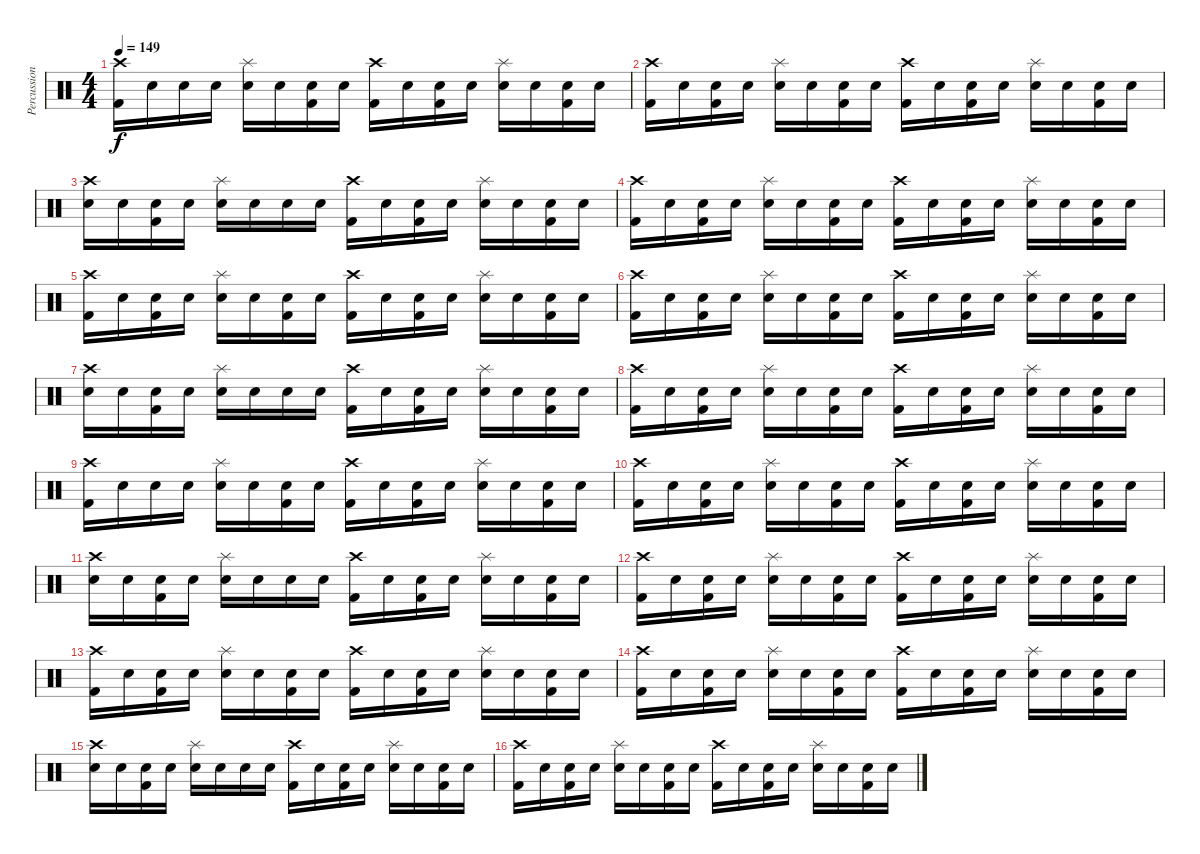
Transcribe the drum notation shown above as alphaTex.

\track ("Percussion" "Percussion") {instrument percussion}
\staff {score}
\articulation defaults
\ts (4 4)
\tempo 149
\clef neutral
\ks c
("Crash high (hit)" "Kick (hit) 2").16{dy f} "Snare (hit)".16 "Snare (hit)".16 "Snare (hit)".16 ("Splash (hit)" "Electric Snare (hit)").16 "Snare (hit)".16 ("Snare (hit)" "Kick (hit) 2").16 "Snare (hit)".16 ("Crash high (hit)" "Kick (hit) 2").16 "Snare (hit)".16 ("Snare (hit)" "Kick (hit) 2").16 "Snare (hit)".16 ("Splash (hit)" "Electric Snare (hit)").16 "Snare (hit)".16 ("Snare (hit)" "Kick (hit) 2").16 "Snare (hit)".16 |
("Crash high (hit)" "Kick (hit) 2").16 "Snare (hit)".16 ("Snare (hit)" "Kick (hit) 2").16 "Snare (hit)".16 ("Splash (hit)" "Electric Snare (hit)").16 "Snare (hit)".16 ("Snare (hit)" "Kick (hit) 2").16 "Snare (hit)".16 ("Crash high (hit)" "Kick (hit) 2").16 "Snare (hit)".16 ("Snare (hit)" "Kick (hit) 2").16 "Snare (hit)".16 ("Splash (hit)" "Electric Snare (hit)").16 "Snare (hit)".16 ("Snare (hit)" "Kick (hit) 2").16 "Snare (hit)".16 |
("Crash high (hit)" "Electric Snare (hit)").16 "Snare (hit)".16 ("Snare (hit)" "Kick (hit) 2").16 "Snare (hit)".16 ("Splash (hit)" "Electric Snare (hit)").16 "Snare (hit)".16 "Snare (hit)".16 "Snare (hit)".16 ("Crash high (hit)" "Kick (hit) 2").16 "Snare (hit)".16 ("Snare (hit)" "Kick (hit) 2").16 "Snare (hit)".16 ("Splash (hit)" "Electric Snare (hit)").16 "Snare (hit)".16 ("Snare (hit)" "Kick (hit) 2").16 "Snare (hit)".16 |
("Crash high (hit)" "Kick (hit) 2").16 "Snare (hit)".16 ("Snare (hit)" "Kick (hit) 2").16 "Snare (hit)".16 ("Splash (hit)" "Electric Snare (hit)").16 "Snare (hit)".16 ("Snare (hit)" "Kick (hit) 2").16 "Snare (hit)".16 ("Crash high (hit)" "Kick (hit) 2").16 "Snare (hit)".16 ("Snare (hit)" "Kick (hit) 2").16 "Snare (hit)".16 ("Splash (hit)" "Electric Snare (hit)").16 "Snare (hit)".16 ("Snare (hit)" "Kick (hit) 2").16 "Snare (hit)".16 |
("Crash high (hit)" "Kick (hit) 2").16 "Snare (hit)".16 ("Snare (hit)" "Kick (hit) 2").16 "Snare (hit)".16 ("Splash (hit)" "Electric Snare (hit)").16 "Snare (hit)".16 ("Snare (hit)" "Kick (hit) 2").16 "Snare (hit)".16 ("Crash high (hit)" "Kick (hit) 2").16 "Snare (hit)".16 ("Snare (hit)" "Kick (hit) 2").16 "Snare (hit)".16 ("Splash (hit)" "Electric Snare (hit)").16 "Snare (hit)".16 ("Snare (hit)" "Kick (hit) 2").16 "Snare (hit)".16 |
("Crash high (hit)" "Kick (hit) 2").16 "Snare (hit)".16 ("Snare (hit)" "Kick (hit) 2").16 "Snare (hit)".16 ("Splash (hit)" "Electric Snare (hit)").16 "Snare (hit)".16 ("Snare (hit)" "Kick (hit) 2").16 "Snare (hit)".16 ("Crash high (hit)" "Kick (hit) 2").16 "Snare (hit)".16 ("Snare (hit)" "Kick (hit) 2").16 "Snare (hit)".16 ("Splash (hit)" "Electric Snare (hit)").16 "Snare (hit)".16 ("Snare (hit)" "Kick (hit) 2").16 "Snare (hit)".16 |
("Crash high (hit)" "Electric Snare (hit)").16 "Snare (hit)".16 ("Snare (hit)" "Kick (hit) 2").16 "Snare (hit)".16 ("Splash (hit)" "Electric Snare (hit)").16 "Snare (hit)".16 "Snare (hit)".16 "Snare (hit)".16 ("Crash high (hit)" "Kick (hit) 2").16 "Snare (hit)".16 ("Snare (hit)" "Kick (hit) 2").16 "Snare (hit)".16 ("Splash (hit)" "Electric Snare (hit)").16 "Snare (hit)".16 ("Snare (hit)" "Kick (hit) 2").16 "Snare (hit)".16 |
("Crash high (hit)" "Kick (hit) 2").16 "Snare (hit)".16 ("Snare (hit)" "Kick (hit) 2").16 "Snare (hit)".16 ("Splash (hit)" "Electric Snare (hit)").16 "Snare (hit)".16 ("Snare (hit)" "Kick (hit) 2").16 "Snare (hit)".16 ("Crash high (hit)" "Kick (hit) 2").16 "Snare (hit)".16 ("Snare (hit)" "Kick (hit) 2").16 "Snare (hit)".16 ("Splash (hit)" "Electric Snare (hit)").16 "Snare (hit)".16 ("Snare (hit)" "Kick (hit) 2").16 "Snare (hit)".16 |
("Crash high (hit)" "Kick (hit) 2").16 "Snare (hit)".16 "Snare (hit)".16 "Snare (hit)".16 ("Splash (hit)" "Electric Snare (hit)").16 "Snare (hit)".16 ("Snare (hit)" "Kick (hit) 2").16 "Snare (hit)".16 ("Crash high (hit)" "Kick (hit) 2").16 "Snare (hit)".16 ("Snare (hit)" "Kick (hit) 2").16 "Snare (hit)".16 ("Splash (hit)" "Electric Snare (hit)").16 "Snare (hit)".16 ("Snare (hit)" "Kick (hit) 2").16 "Snare (hit)".16 |
("Crash high (hit)" "Kick (hit) 2").16 "Snare (hit)".16 ("Snare (hit)" "Kick (hit) 2").16 "Snare (hit)".16 ("Splash (hit)" "Electric Snare (hit)").16 "Snare (hit)".16 ("Snare (hit)" "Kick (hit) 2").16 "Snare (hit)".16 ("Crash high (hit)" "Kick (hit) 2").16 "Snare (hit)".16 ("Snare (hit)" "Kick (hit) 2").16 "Snare (hit)".16 ("Splash (hit)" "Electric Snare (hit)").16 "Snare (hit)".16 ("Snare (hit)" "Kick (hit) 2").16 "Snare (hit)".16 |
("Crash high (hit)" "Electric Snare (hit)").16 "Snare (hit)".16 ("Snare (hit)" "Kick (hit) 2").16 "Snare (hit)".16 ("Splash (hit)" "Electric Snare (hit)").16 "Snare (hit)".16 "Snare (hit)".16 "Snare (hit)".16 ("Crash high (hit)" "Kick (hit) 2").16 "Snare (hit)".16 ("Snare (hit)" "Kick (hit) 2").16 "Snare (hit)".16 ("Splash (hit)" "Electric Snare (hit)").16 "Snare (hit)".16 ("Snare (hit)" "Kick (hit) 2").16 "Snare (hit)".16 |
("Crash high (hit)" "Kick (hit) 2").16 "Snare (hit)".16 ("Snare (hit)" "Kick (hit) 2").16 "Snare (hit)".16 ("Splash (hit)" "Electric Snare (hit)").16 "Snare (hit)".16 ("Snare (hit)" "Kick (hit) 2").16 "Snare (hit)".16 ("Crash high (hit)" "Kick (hit) 2").16 "Snare (hit)".16 ("Snare (hit)" "Kick (hit) 2").16 "Snare (hit)".16 ("Splash (hit)" "Electric Snare (hit)").16 "Snare (hit)".16 ("Snare (hit)" "Kick (hit) 2").16 "Snare (hit)".16 |
("Crash high (hit)" "Kick (hit) 2").16 "Snare (hit)".16 ("Snare (hit)" "Kick (hit) 2").16 "Snare (hit)".16 ("Splash (hit)" "Electric Snare (hit)").16 "Snare (hit)".16 ("Snare (hit)" "Kick (hit) 2").16 "Snare (hit)".16 ("Crash high (hit)" "Kick (hit) 2").16 "Snare (hit)".16 ("Snare (hit)" "Kick (hit) 2").16 "Snare (hit)".16 ("Splash (hit)" "Electric Snare (hit)").16 "Snare (hit)".16 ("Snare (hit)" "Kick (hit) 2").16 "Snare (hit)".16 |
("Crash high (hit)" "Kick (hit) 2").16 "Snare (hit)".16 ("Snare (hit)" "Kick (hit) 2").16 "Snare (hit)".16 ("Splash (hit)" "Electric Snare (hit)").16 "Snare (hit)".16 ("Snare (hit)" "Kick (hit) 2").16 "Snare (hit)".16 ("Crash high (hit)" "Kick (hit) 2").16 "Snare (hit)".16 ("Snare (hit)" "Kick (hit) 2").16 "Snare (hit)".16 ("Splash (hit)" "Electric Snare (hit)").16 "Snare (hit)".16 ("Snare (hit)" "Kick (hit) 2").16 "Snare (hit)".16 |
("Crash high (hit)" "Electric Snare (hit)").16 "Snare (hit)".16 ("Snare (hit)" "Kick (hit) 2").16 "Snare (hit)".16 ("Splash (hit)" "Electric Snare (hit)").16 "Snare (hit)".16 "Snare (hit)".16 "Snare (hit)".16 ("Crash high (hit)" "Kick (hit) 2").16 "Snare (hit)".16 ("Snare (hit)" "Kick (hit) 2").16 "Snare (hit)".16 ("Splash (hit)" "Electric Snare (hit)").16 "Snare (hit)".16 ("Snare (hit)" "Kick (hit) 2").16 "Snare (hit)".16 |
("Crash high (hit)" "Kick (hit) 2").16 "Snare (hit)".16 ("Snare (hit)" "Kick (hit) 2").16 "Snare (hit)".16 ("Splash (hit)" "Electric Snare (hit)").16 "Snare (hit)".16 ("Snare (hit)" "Kick (hit) 2").16 "Snare (hit)".16 ("Crash high (hit)" "Kick (hit) 2").16 "Snare (hit)".16 ("Snare (hit)" "Kick (hit) 2").16 "Snare (hit)".16 ("Splash (hit)" "Electric Snare (hit)").16 "Snare (hit)".16 ("Snare (hit)" "Kick (hit) 2").16 "Snare (hit)".16
